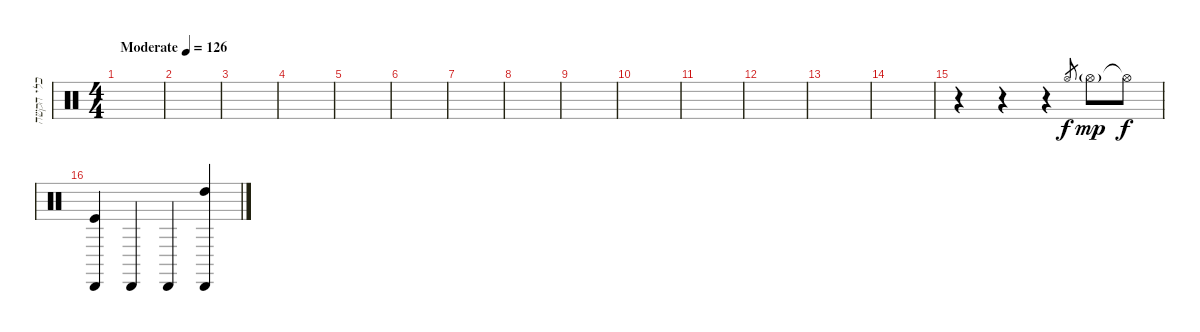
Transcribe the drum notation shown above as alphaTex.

\track ("כלי הקשה" "כלי הקשה") {instrument percussion}
\staff {score}
\articulation defaults
\ts (4 4)
\tempo (126 "Moderate")
\clef neutral
\ks c
|
|
|
|
|
|
|
|
|
|
|
|
|
|
r.4 r.4 r.4 "Hi-Hat (open)".8{gr} "Hi-Hat (open)"{g}.8{dy mp} "Hi-Hat (open)"{t}.8{dy f} |
("Cabasa (hit)" "Kick (hit)").4 "Cabasa (hit)".4 "Cabasa (hit)".4 ("High Tom (hit)" "Cabasa (hit)").4
